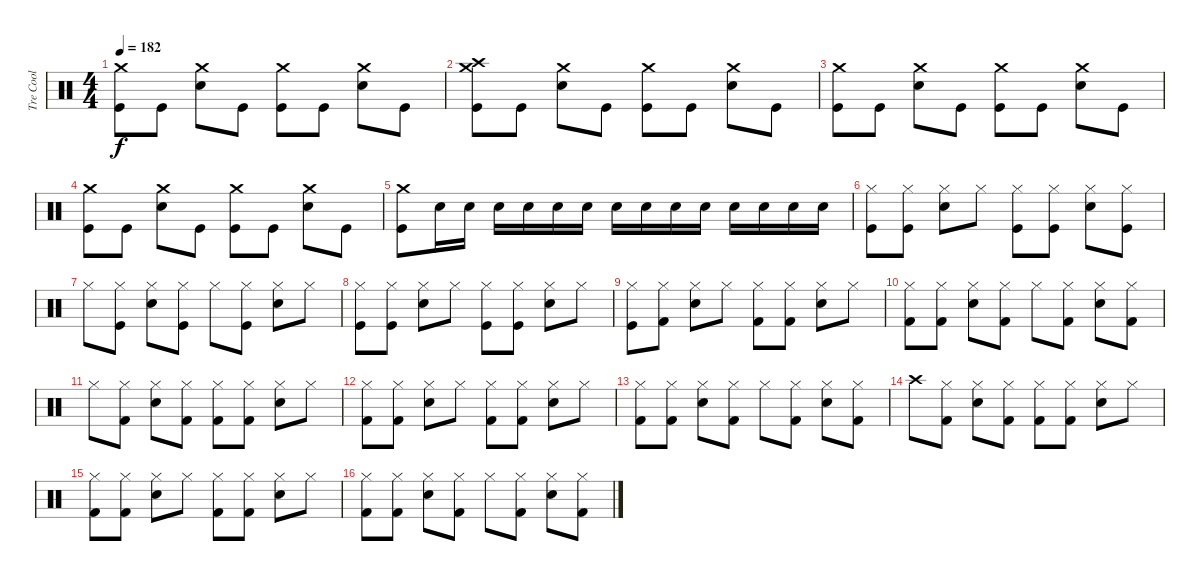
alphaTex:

\track ("Tre Cool" "Tre Cool") {instrument percussion}
\staff {score}
\articulation defaults
\ts (4 4)
\tempo 182
\clef neutral
\ks c
("Crash medium (hit)" "Kick (hit)").8{dy f} "Kick (hit)".8 ("Crash medium (hit)" "Snare (hit) 2").8 "Kick (hit)".8 ("Crash medium (hit)" "Kick (hit)").8 "Kick (hit)".8 ("Crash medium (hit)" "Snare (hit) 2").8 "Kick (hit)".8 |
("Crash medium (hit)" "Crash high (hit)" "Kick (hit)").8 "Kick (hit)".8 ("Crash medium (hit)" "Snare (hit) 2").8 "Kick (hit)".8 ("Crash medium (hit)" "Kick (hit)").8 "Kick (hit)".8 ("Crash medium (hit)" "Snare (hit) 2").8 "Kick (hit)".8 |
("Crash medium (hit)" "Kick (hit)").8 "Kick (hit)".8 ("Crash medium (hit)" "Snare (hit) 2").8 "Kick (hit)".8 ("Crash medium (hit)" "Kick (hit)").8 "Kick (hit)".8 ("Crash medium (hit)" "Snare (hit) 2").8 "Kick (hit)".8 |
("Crash medium (hit)" "Kick (hit)").8 "Kick (hit)".8 ("Crash medium (hit)" "Snare (hit) 2").8 "Kick (hit)".8 ("Crash medium (hit)" "Kick (hit)").8 "Kick (hit)".8 ("Crash medium (hit)" "Snare (hit) 2").8 "Kick (hit)".8 |
("Crash medium (hit)" "Kick (hit)").8 "Snare (hit) 2".16 "Snare (hit) 2".16 "Snare (hit) 2".16 "Snare (hit) 2".16 "Snare (hit) 2".16 "Snare (hit) 2".16 "Snare (hit) 2".16 "Snare (hit) 2".16 "Snare (hit) 2".16 "Snare (hit) 2".16 "Snare (hit) 2".16 "Snare (hit) 2".16 "Snare (hit) 2".16 "Snare (hit) 2".16 |
("Hi-Hat (closed)" "Kick (hit)").8 ("Hi-Hat (closed)" "Kick (hit)").8 ("Hi-Hat (closed)" "Snare (hit) 2").8 "Hi-Hat (closed)".8 ("Hi-Hat (closed)" "Kick (hit)").8 ("Hi-Hat (closed)" "Kick (hit)").8 ("Hi-Hat (closed)" "Snare (hit) 2").8 ("Hi-Hat (closed)" "Kick (hit)").8 |
"Hi-Hat (closed)".8 ("Hi-Hat (closed)" "Kick (hit)").8 ("Hi-Hat (closed)" "Snare (hit) 2").8 ("Hi-Hat (closed)" "Kick (hit)").8 "Hi-Hat (closed)".8 ("Hi-Hat (closed)" "Kick (hit)").8 ("Hi-Hat (closed)" "Snare (hit) 2").8 "Hi-Hat (closed)".8 |
("Hi-Hat (closed)" "Kick (hit)").8 ("Hi-Hat (closed)" "Kick (hit)").8 ("Hi-Hat (closed)" "Snare (hit) 2").8 "Hi-Hat (closed)".8 ("Hi-Hat (closed)" "Kick (hit)").8 ("Hi-Hat (closed)" "Kick (hit)").8 ("Hi-Hat (closed)" "Snare (hit) 2").8 "Hi-Hat (closed)".8 |
("Hi-Hat (closed)" "Kick (hit)").8 ("Hi-Hat (closed)" "Kick (hit) 2").8 ("Hi-Hat (closed)" "Snare (hit) 2").8 "Hi-Hat (closed)".8 ("Hi-Hat (closed)" "Kick (hit) 2").8 ("Hi-Hat (closed)" "Kick (hit) 2").8 ("Hi-Hat (closed)" "Snare (hit) 2").8 "Hi-Hat (closed)".8 |
("Hi-Hat (closed)" "Kick (hit) 2").8 ("Hi-Hat (closed)" "Kick (hit) 2").8 ("Hi-Hat (closed)" "Snare (hit) 2").8 ("Hi-Hat (closed)" "Kick (hit) 2").8 "Hi-Hat (closed)".8 ("Hi-Hat (closed)" "Kick (hit) 2").8 ("Hi-Hat (closed)" "Snare (hit) 2").8 ("Hi-Hat (closed)" "Kick (hit) 2").8 |
"Hi-Hat (closed)".8 ("Hi-Hat (closed)" "Kick (hit) 2").8 ("Hi-Hat (closed)" "Snare (hit) 2").8 ("Hi-Hat (closed)" "Kick (hit) 2").8 ("Hi-Hat (closed)" "Kick (hit) 2").8 ("Hi-Hat (closed)" "Kick (hit) 2").8 ("Hi-Hat (closed)" "Snare (hit) 2").8 "Hi-Hat (closed)".8 |
("Hi-Hat (closed)" "Kick (hit) 2").8 ("Hi-Hat (closed)" "Kick (hit) 2").8 ("Hi-Hat (closed)" "Snare (hit) 2").8 "Hi-Hat (closed)".8 ("Hi-Hat (closed)" "Kick (hit) 2").8 ("Hi-Hat (closed)" "Kick (hit) 2").8 ("Hi-Hat (closed)" "Snare (hit) 2").8 "Hi-Hat (closed)".8 |
("Hi-Hat (closed)" "Kick (hit) 2").8 ("Hi-Hat (closed)" "Kick (hit) 2").8 ("Hi-Hat (closed)" "Snare (hit) 2").8 ("Hi-Hat (closed)" "Kick (hit) 2").8 "Hi-Hat (closed)".8 ("Hi-Hat (closed)" "Kick (hit) 2").8 ("Hi-Hat (closed)" "Snare (hit) 2").8 ("Hi-Hat (closed)" "Kick (hit) 2").8 |
"Crash high (hit)".8 ("Hi-Hat (closed)" "Kick (hit) 2").8 ("Hi-Hat (closed)" "Snare (hit) 2").8 ("Hi-Hat (closed)" "Kick (hit) 2").8 ("Hi-Hat (closed)" "Kick (hit) 2").8 ("Hi-Hat (closed)" "Kick (hit) 2").8 ("Hi-Hat (closed)" "Snare (hit) 2").8 "Hi-Hat (closed)".8 |
("Hi-Hat (closed)" "Kick (hit) 2").8 ("Hi-Hat (closed)" "Kick (hit) 2").8 ("Hi-Hat (closed)" "Snare (hit) 2").8 "Hi-Hat (closed)".8 ("Hi-Hat (closed)" "Kick (hit) 2").8 ("Hi-Hat (closed)" "Kick (hit) 2").8 ("Hi-Hat (closed)" "Snare (hit) 2").8 "Hi-Hat (closed)".8 |
("Hi-Hat (closed)" "Kick (hit) 2").8 ("Hi-Hat (closed)" "Kick (hit) 2").8 ("Hi-Hat (closed)" "Snare (hit) 2").8 ("Hi-Hat (closed)" "Kick (hit) 2").8 "Hi-Hat (closed)".8 ("Hi-Hat (closed)" "Kick (hit) 2").8 ("Hi-Hat (closed)" "Snare (hit) 2").8 ("Hi-Hat (closed)" "Kick (hit) 2").8
